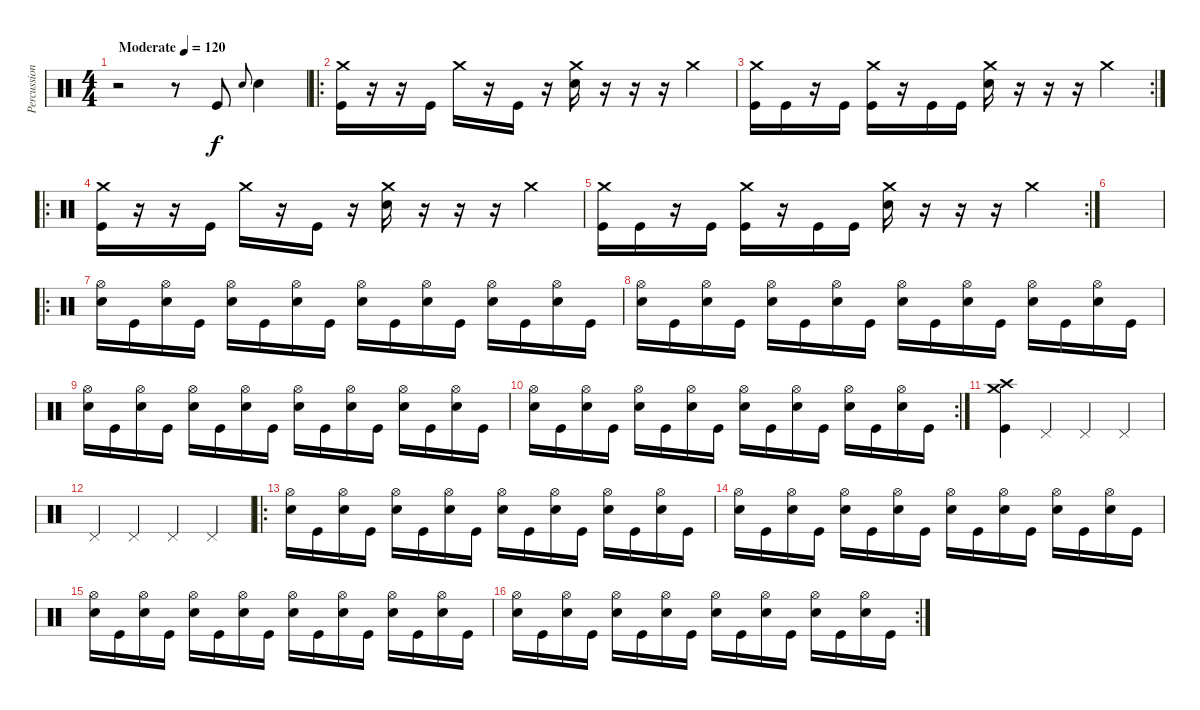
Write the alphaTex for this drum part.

\track ("Percussion" "Percussion") {instrument percussion}
\staff {score}
\articulation defaults
\ts (4 4)
\tempo (120 "Moderate")
\clef neutral
\ks c
r.2{dy f} r.8 "Kick (hit)".8 "Snare (hit) 2".8{gr onbeat} "Snare (hit) 2".4 |
\ro
("Crash medium (hit)" "Kick (hit)").16 r.16 r.16 "Kick (hit)".16 "Crash medium (hit)".16 r.16 "Kick (hit)".16 r.16 ("Crash medium (hit)" "Snare (hit) 2").16 r.16 r.16 r.16 "Crash medium (hit)".4 |
\rc 2
("Crash medium (hit)" "Kick (hit)").16 "Kick (hit)".16 r.16 "Kick (hit)".16 ("Crash medium (hit)" "Kick (hit)").16 r.16 "Kick (hit)".16 "Kick (hit)".16 ("Crash medium (hit)" "Snare (hit) 2").16 r.16 r.16 r.16 "Crash medium (hit)".4 |
\ro
("Crash medium (hit)" "Kick (hit)").16 r.16 r.16 "Kick (hit)".16 "Crash medium (hit)".16 r.16 "Kick (hit)".16 r.16 ("Crash medium (hit)" "Snare (hit) 2").16 r.16 r.16 r.16 "Crash medium (hit)".4 |
\rc 2
("Crash medium (hit)" "Kick (hit)").16 "Kick (hit)".16 r.16 "Kick (hit)".16 ("Crash medium (hit)" "Kick (hit)").16 r.16 "Kick (hit)".16 "Kick (hit)".16 ("Crash medium (hit)" "Snare (hit) 2").16 r.16 r.16 r.16 "Crash medium (hit)".4 |
|
\ro
("Hi-Hat (open)" "Snare (hit) 2").16 "Kick (hit)".16 ("Hi-Hat (open)" "Snare (hit) 2").16 "Kick (hit)".16 ("Hi-Hat (open)" "Snare (hit) 2").16 "Kick (hit)".16 ("Hi-Hat (open)" "Snare (hit) 2").16 "Kick (hit)".16 ("Hi-Hat (open)" "Snare (hit) 2").16 "Kick (hit)".16 ("Hi-Hat (open)" "Snare (hit) 2").16 "Kick (hit)".16 ("Hi-Hat (open)" "Snare (hit) 2").16 "Kick (hit)".16 ("Hi-Hat (open)" "Snare (hit) 2").16 "Kick (hit)".16 |
("Hi-Hat (open)" "Snare (hit) 2").16 "Kick (hit)".16 ("Hi-Hat (open)" "Snare (hit) 2").16 "Kick (hit)".16 ("Hi-Hat (open)" "Snare (hit) 2").16 "Kick (hit)".16 ("Hi-Hat (open)" "Snare (hit) 2").16 "Kick (hit)".16 ("Hi-Hat (open)" "Snare (hit) 2").16 "Kick (hit)".16 ("Hi-Hat (open)" "Snare (hit) 2").16 "Kick (hit)".16 ("Hi-Hat (open)" "Snare (hit) 2").16 "Kick (hit)".16 ("Hi-Hat (open)" "Snare (hit) 2").16 "Kick (hit)".16 |
("Hi-Hat (open)" "Snare (hit) 2").16 "Kick (hit)".16 ("Hi-Hat (open)" "Snare (hit) 2").16 "Kick (hit)".16 ("Hi-Hat (open)" "Snare (hit) 2").16 "Kick (hit)".16 ("Hi-Hat (open)" "Snare (hit) 2").16 "Kick (hit)".16 ("Hi-Hat (open)" "Snare (hit) 2").16 "Kick (hit)".16 ("Hi-Hat (open)" "Snare (hit) 2").16 "Kick (hit)".16 ("Hi-Hat (open)" "Snare (hit) 2").16 "Kick (hit)".16 ("Hi-Hat (open)" "Snare (hit) 2").16 "Kick (hit)".16 |
\rc 2
("Hi-Hat (open)" "Snare (hit) 2").16 "Kick (hit)".16 ("Hi-Hat (open)" "Snare (hit) 2").16 "Kick (hit)".16 ("Hi-Hat (open)" "Snare (hit) 2").16 "Kick (hit)".16 ("Hi-Hat (open)" "Snare (hit) 2").16 "Kick (hit)".16 ("Hi-Hat (open)" "Snare (hit) 2").16 "Kick (hit)".16 ("Hi-Hat (open)" "Snare (hit) 2").16 "Kick (hit)".16 ("Hi-Hat (open)" "Snare (hit) 2").16 "Kick (hit)".16 ("Hi-Hat (open)" "Snare (hit) 2").16 "Kick (hit)".16 |
("Crash medium (hit)" "Crash high (hit)" "Kick (hit)").4 "Pedal Hi-Hat (hit)".4 "Pedal Hi-Hat (hit)".4 "Pedal Hi-Hat (hit)".4 |
"Pedal Hi-Hat (hit)".4 "Pedal Hi-Hat (hit)".4 "Pedal Hi-Hat (hit)".4 "Pedal Hi-Hat (hit)".4 |
\ro
("Hi-Hat (open)" "Snare (hit) 2").16 "Kick (hit)".16 ("Hi-Hat (open)" "Snare (hit) 2").16 "Kick (hit)".16 ("Hi-Hat (open)" "Snare (hit) 2").16 "Kick (hit)".16 ("Hi-Hat (open)" "Snare (hit) 2").16 "Kick (hit)".16 ("Hi-Hat (open)" "Snare (hit) 2").16 "Kick (hit)".16 ("Hi-Hat (open)" "Snare (hit) 2").16 "Kick (hit)".16 ("Hi-Hat (open)" "Snare (hit) 2").16 "Kick (hit)".16 ("Hi-Hat (open)" "Snare (hit) 2").16 "Kick (hit)".16 |
("Hi-Hat (open)" "Snare (hit) 2").16 "Kick (hit)".16 ("Hi-Hat (open)" "Snare (hit) 2").16 "Kick (hit)".16 ("Hi-Hat (open)" "Snare (hit) 2").16 "Kick (hit)".16 ("Hi-Hat (open)" "Snare (hit) 2").16 "Kick (hit)".16 ("Hi-Hat (open)" "Snare (hit) 2").16 "Kick (hit)".16 ("Hi-Hat (open)" "Snare (hit) 2").16 "Kick (hit)".16 ("Hi-Hat (open)" "Snare (hit) 2").16 "Kick (hit)".16 ("Hi-Hat (open)" "Snare (hit) 2").16 "Kick (hit)".16 |
("Hi-Hat (open)" "Snare (hit) 2").16 "Kick (hit)".16 ("Hi-Hat (open)" "Snare (hit) 2").16 "Kick (hit)".16 ("Hi-Hat (open)" "Snare (hit) 2").16 "Kick (hit)".16 ("Hi-Hat (open)" "Snare (hit) 2").16 "Kick (hit)".16 ("Hi-Hat (open)" "Snare (hit) 2").16 "Kick (hit)".16 ("Hi-Hat (open)" "Snare (hit) 2").16 "Kick (hit)".16 ("Hi-Hat (open)" "Snare (hit) 2").16 "Kick (hit)".16 ("Hi-Hat (open)" "Snare (hit) 2").16 "Kick (hit)".16 |
\rc 2
("Hi-Hat (open)" "Snare (hit) 2").16 "Kick (hit)".16 ("Hi-Hat (open)" "Snare (hit) 2").16 "Kick (hit)".16 ("Hi-Hat (open)" "Snare (hit) 2").16 "Kick (hit)".16 ("Hi-Hat (open)" "Snare (hit) 2").16 "Kick (hit)".16 ("Hi-Hat (open)" "Snare (hit) 2").16 "Kick (hit)".16 ("Hi-Hat (open)" "Snare (hit) 2").16 "Kick (hit)".16 ("Hi-Hat (open)" "Snare (hit) 2").16 "Kick (hit)".16 ("Hi-Hat (open)" "Snare (hit) 2").16 "Kick (hit)".16
